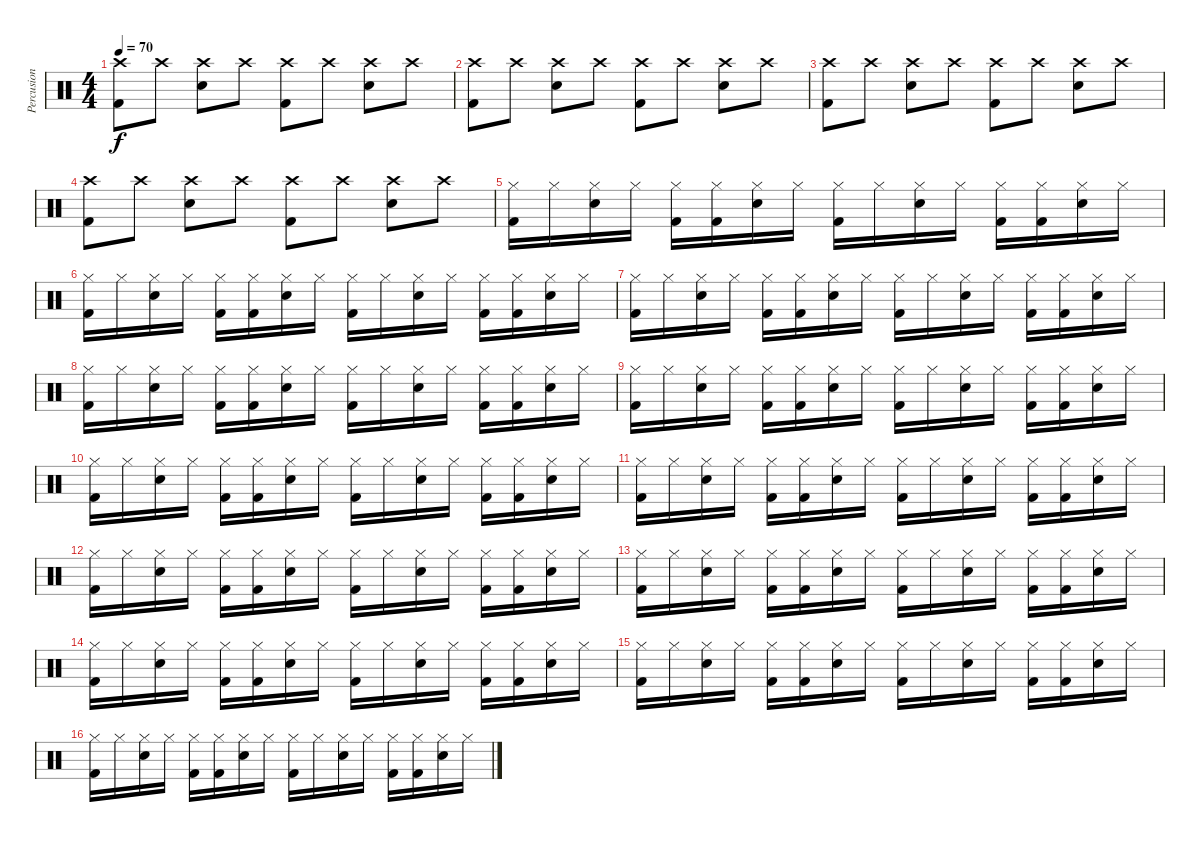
\track ("Percusion" "Percusion") {instrument percussion}
\staff {score}
\articulation defaults
\ts (4 4)
\tempo 70
\clef neutral
\ks c
("Crash high (hit)" "Kick (hit) 2").8{dy f} "Crash high (hit)".8 ("Crash high (hit)" "Snare (hit) 2").8 "Crash high (hit)".8 ("Crash high (hit)" "Kick (hit) 2").8 "Crash high (hit)".8 ("Crash high (hit)" "Snare (hit) 2").8 "Crash high (hit)".8 |
("Crash high (hit)" "Kick (hit) 2").8 "Crash high (hit)".8 ("Crash high (hit)" "Snare (hit) 2").8 "Crash high (hit)".8 ("Crash high (hit)" "Kick (hit) 2").8 "Crash high (hit)".8 ("Crash high (hit)" "Snare (hit) 2").8 "Crash high (hit)".8 |
("Crash high (hit)" "Kick (hit) 2").8 "Crash high (hit)".8 ("Crash high (hit)" "Snare (hit) 2").8 "Crash high (hit)".8 ("Crash high (hit)" "Kick (hit) 2").8 "Crash high (hit)".8 ("Crash high (hit)" "Snare (hit) 2").8 "Crash high (hit)".8 |
("Crash high (hit)" "Kick (hit) 2").8 "Crash high (hit)".8 ("Crash high (hit)" "Snare (hit) 2").8 "Crash high (hit)".8 ("Crash high (hit)" "Kick (hit) 2").8 "Crash high (hit)".8 ("Crash high (hit)" "Snare (hit) 2").8 "Crash high (hit)".8 |
("Hi-Hat (closed)" "Kick (hit) 2").16 "Hi-Hat (closed)".16 ("Hi-Hat (closed)" "Snare (hit) 2").16 "Hi-Hat (closed)".16 ("Hi-Hat (closed)" "Kick (hit) 2").16 ("Hi-Hat (closed)" "Kick (hit) 2").16 ("Hi-Hat (closed)" "Snare (hit) 2").16 "Hi-Hat (closed)".16 ("Hi-Hat (closed)" "Kick (hit) 2").16 "Hi-Hat (closed)".16 ("Hi-Hat (closed)" "Snare (hit) 2").16 "Hi-Hat (closed)".16 ("Hi-Hat (closed)" "Kick (hit) 2").16 ("Hi-Hat (closed)" "Kick (hit) 2").16 ("Hi-Hat (closed)" "Snare (hit) 2").16 "Hi-Hat (closed)".16 |
("Hi-Hat (closed)" "Kick (hit) 2").16 "Hi-Hat (closed)".16 ("Hi-Hat (closed)" "Snare (hit) 2").16 "Hi-Hat (closed)".16 ("Hi-Hat (closed)" "Kick (hit) 2").16 ("Hi-Hat (closed)" "Kick (hit) 2").16 ("Hi-Hat (closed)" "Snare (hit) 2").16 "Hi-Hat (closed)".16 ("Hi-Hat (closed)" "Kick (hit) 2").16 "Hi-Hat (closed)".16 ("Hi-Hat (closed)" "Snare (hit) 2").16 "Hi-Hat (closed)".16 ("Hi-Hat (closed)" "Kick (hit) 2").16 ("Hi-Hat (closed)" "Kick (hit) 2").16 ("Hi-Hat (closed)" "Snare (hit) 2").16 "Hi-Hat (closed)".16 |
("Hi-Hat (closed)" "Kick (hit) 2").16 "Hi-Hat (closed)".16 ("Hi-Hat (closed)" "Snare (hit) 2").16 "Hi-Hat (closed)".16 ("Hi-Hat (closed)" "Kick (hit) 2").16 ("Hi-Hat (closed)" "Kick (hit) 2").16 ("Hi-Hat (closed)" "Snare (hit) 2").16 "Hi-Hat (closed)".16 ("Hi-Hat (closed)" "Kick (hit) 2").16 "Hi-Hat (closed)".16 ("Hi-Hat (closed)" "Snare (hit) 2").16 "Hi-Hat (closed)".16 ("Hi-Hat (closed)" "Kick (hit) 2").16 ("Hi-Hat (closed)" "Kick (hit) 2").16 ("Hi-Hat (closed)" "Snare (hit) 2").16 "Hi-Hat (closed)".16 |
("Hi-Hat (closed)" "Kick (hit) 2").16 "Hi-Hat (closed)".16 ("Hi-Hat (closed)" "Snare (hit) 2").16 "Hi-Hat (closed)".16 ("Hi-Hat (closed)" "Kick (hit) 2").16 ("Hi-Hat (closed)" "Kick (hit) 2").16 ("Hi-Hat (closed)" "Snare (hit) 2").16 "Hi-Hat (closed)".16 ("Hi-Hat (closed)" "Kick (hit) 2").16 "Hi-Hat (closed)".16 ("Hi-Hat (closed)" "Snare (hit) 2").16 "Hi-Hat (closed)".16 ("Hi-Hat (closed)" "Kick (hit) 2").16 ("Hi-Hat (closed)" "Kick (hit) 2").16 ("Hi-Hat (closed)" "Snare (hit) 2").16 "Hi-Hat (closed)".16 |
("Hi-Hat (closed)" "Kick (hit) 2").16 "Hi-Hat (closed)".16 ("Hi-Hat (closed)" "Snare (hit) 2").16 "Hi-Hat (closed)".16 ("Hi-Hat (closed)" "Kick (hit) 2").16 ("Hi-Hat (closed)" "Kick (hit) 2").16 ("Hi-Hat (closed)" "Snare (hit) 2").16 "Hi-Hat (closed)".16 ("Hi-Hat (closed)" "Kick (hit) 2").16 "Hi-Hat (closed)".16 ("Hi-Hat (closed)" "Snare (hit) 2").16 "Hi-Hat (closed)".16 ("Hi-Hat (closed)" "Kick (hit) 2").16 ("Hi-Hat (closed)" "Kick (hit) 2").16 ("Hi-Hat (closed)" "Snare (hit) 2").16 "Hi-Hat (closed)".16 |
("Hi-Hat (closed)" "Kick (hit) 2").16 "Hi-Hat (closed)".16 ("Hi-Hat (closed)" "Snare (hit) 2").16 "Hi-Hat (closed)".16 ("Hi-Hat (closed)" "Kick (hit) 2").16 ("Hi-Hat (closed)" "Kick (hit) 2").16 ("Hi-Hat (closed)" "Snare (hit) 2").16 "Hi-Hat (closed)".16 ("Hi-Hat (closed)" "Kick (hit) 2").16 "Hi-Hat (closed)".16 ("Hi-Hat (closed)" "Snare (hit) 2").16 "Hi-Hat (closed)".16 ("Hi-Hat (closed)" "Kick (hit) 2").16 ("Hi-Hat (closed)" "Kick (hit) 2").16 ("Hi-Hat (closed)" "Snare (hit) 2").16 "Hi-Hat (closed)".16 |
("Hi-Hat (closed)" "Kick (hit) 2").16 "Hi-Hat (closed)".16 ("Hi-Hat (closed)" "Snare (hit) 2").16 "Hi-Hat (closed)".16 ("Hi-Hat (closed)" "Kick (hit) 2").16 ("Hi-Hat (closed)" "Kick (hit) 2").16 ("Hi-Hat (closed)" "Snare (hit) 2").16 "Hi-Hat (closed)".16 ("Hi-Hat (closed)" "Kick (hit) 2").16 "Hi-Hat (closed)".16 ("Hi-Hat (closed)" "Snare (hit) 2").16 "Hi-Hat (closed)".16 ("Hi-Hat (closed)" "Kick (hit) 2").16 ("Hi-Hat (closed)" "Kick (hit) 2").16 ("Hi-Hat (closed)" "Snare (hit) 2").16 "Hi-Hat (closed)".16 |
("Hi-Hat (closed)" "Kick (hit) 2").16 "Hi-Hat (closed)".16 ("Hi-Hat (closed)" "Snare (hit) 2").16 "Hi-Hat (closed)".16 ("Hi-Hat (closed)" "Kick (hit) 2").16 ("Hi-Hat (closed)" "Kick (hit) 2").16 ("Hi-Hat (closed)" "Snare (hit) 2").16 "Hi-Hat (closed)".16 ("Hi-Hat (closed)" "Kick (hit) 2").16 "Hi-Hat (closed)".16 ("Hi-Hat (closed)" "Snare (hit) 2").16 "Hi-Hat (closed)".16 ("Hi-Hat (closed)" "Kick (hit) 2").16 ("Hi-Hat (closed)" "Kick (hit) 2").16 ("Hi-Hat (closed)" "Snare (hit) 2").16 "Hi-Hat (closed)".16 |
("Hi-Hat (closed)" "Kick (hit) 2").16 "Hi-Hat (closed)".16 ("Hi-Hat (closed)" "Snare (hit) 2").16 "Hi-Hat (closed)".16 ("Hi-Hat (closed)" "Kick (hit) 2").16 ("Hi-Hat (closed)" "Kick (hit) 2").16 ("Hi-Hat (closed)" "Snare (hit) 2").16 "Hi-Hat (closed)".16 ("Hi-Hat (closed)" "Kick (hit) 2").16 "Hi-Hat (closed)".16 ("Hi-Hat (closed)" "Snare (hit) 2").16 "Hi-Hat (closed)".16 ("Hi-Hat (closed)" "Kick (hit) 2").16 ("Hi-Hat (closed)" "Kick (hit) 2").16 ("Hi-Hat (closed)" "Snare (hit) 2").16 "Hi-Hat (closed)".16 |
("Hi-Hat (closed)" "Kick (hit) 2").16 "Hi-Hat (closed)".16 ("Hi-Hat (closed)" "Snare (hit) 2").16 "Hi-Hat (closed)".16 ("Hi-Hat (closed)" "Kick (hit) 2").16 ("Hi-Hat (closed)" "Kick (hit) 2").16 ("Hi-Hat (closed)" "Snare (hit) 2").16 "Hi-Hat (closed)".16 ("Hi-Hat (closed)" "Kick (hit) 2").16 "Hi-Hat (closed)".16 ("Hi-Hat (closed)" "Snare (hit) 2").16 "Hi-Hat (closed)".16 ("Hi-Hat (closed)" "Kick (hit) 2").16 ("Hi-Hat (closed)" "Kick (hit) 2").16 ("Hi-Hat (closed)" "Snare (hit) 2").16 "Hi-Hat (closed)".16 |
("Hi-Hat (closed)" "Kick (hit) 2").16 "Hi-Hat (closed)".16 ("Hi-Hat (closed)" "Snare (hit) 2").16 "Hi-Hat (closed)".16 ("Hi-Hat (closed)" "Kick (hit) 2").16 ("Hi-Hat (closed)" "Kick (hit) 2").16 ("Hi-Hat (closed)" "Snare (hit) 2").16 "Hi-Hat (closed)".16 ("Hi-Hat (closed)" "Kick (hit) 2").16 "Hi-Hat (closed)".16 ("Hi-Hat (closed)" "Snare (hit) 2").16 "Hi-Hat (closed)".16 ("Hi-Hat (closed)" "Kick (hit) 2").16 ("Hi-Hat (closed)" "Kick (hit) 2").16 ("Hi-Hat (closed)" "Snare (hit) 2").16 "Hi-Hat (closed)".16 |
("Hi-Hat (closed)" "Kick (hit) 2").16 "Hi-Hat (closed)".16 ("Hi-Hat (closed)" "Snare (hit) 2").16 "Hi-Hat (closed)".16 ("Hi-Hat (closed)" "Kick (hit) 2").16 ("Hi-Hat (closed)" "Kick (hit) 2").16 ("Hi-Hat (closed)" "Snare (hit) 2").16 "Hi-Hat (closed)".16 ("Hi-Hat (closed)" "Kick (hit) 2").16 "Hi-Hat (closed)".16 ("Hi-Hat (closed)" "Snare (hit) 2").16 "Hi-Hat (closed)".16 ("Hi-Hat (closed)" "Kick (hit) 2").16 ("Hi-Hat (closed)" "Kick (hit) 2").16 ("Hi-Hat (closed)" "Snare (hit) 2").16 "Hi-Hat (closed)".16
